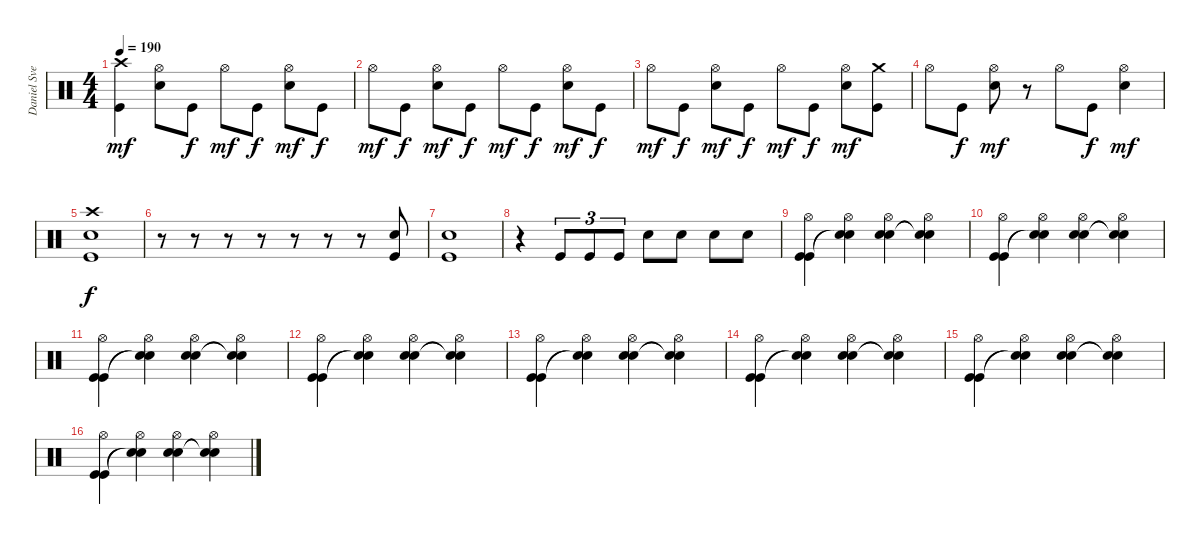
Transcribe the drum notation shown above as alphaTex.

\track ("Daniel Svensson" "Daniel Sve") {instrument percussion}
\staff {score}
\articulation defaults
\ts (4 4)
\tempo 190
\clef neutral
\ks c
("Kick (hit)" "Crash high (hit)").4{dy mf} ("Electric Snare (hit)" "Hi-Hat (open)").8 "Kick (hit)".8{dy f} "Hi-Hat (open)".8{dy mf} "Kick (hit)".8{dy f} ("Electric Snare (hit)" "Hi-Hat (open)").8{dy mf} "Kick (hit)".8{dy f} |
"Hi-Hat (open)".8{dy mf} "Kick (hit)".8{dy f} ("Electric Snare (hit)" "Hi-Hat (open)").8{dy mf} "Kick (hit)".8{dy f} "Hi-Hat (open)".8{dy mf} "Kick (hit)".8{dy f} ("Electric Snare (hit)" "Hi-Hat (open)").8{dy mf} "Kick (hit)".8{dy f} |
"Hi-Hat (open)".8{dy mf} "Kick (hit)".8{dy f} ("Electric Snare (hit)" "Hi-Hat (open)").8{dy mf} "Kick (hit)".8{dy f} "Hi-Hat (open)".8{dy mf} "Kick (hit)".8{dy f} ("Electric Snare (hit)" "Hi-Hat (open)").8{dy mf} ("Kick (hit)" "Crash medium (hit)").8 |
"Hi-Hat (open)".8 "Kick (hit)".8{dy f} ("Electric Snare (hit)" "Hi-Hat (open)").8{dy mf} r.8 "Hi-Hat (open)".8 "Kick (hit)".8{dy f} ("Electric Snare (hit)" "Hi-Hat (open)").4{dy mf} |
("Crash high (hit)" "Electric Snare (hit)" "Kick (hit)").1{dy f} |
r.8 r.8 r.8 r.8 r.8 r.8 r.8 ("Electric Snare (hit)" "Kick (hit)").8 |
("Electric Snare (hit)" "Kick (hit)").1 |
r.4 "Kick (hit)".8{tu (3 2)} "Kick (hit)".8{tu (3 2)} "Kick (hit)".8{tu (3 2)} "Electric Snare (hit)".8 "Electric Snare (hit)".8 "Electric Snare (hit)".8 "Electric Snare (hit)".8 |
("Hi-Hat (open)" "Kick (hit)" "Kick (hit)").4 ("Hi-Hat (open)" "Snare (hit)"{t} "Snare (hit)"{t}).4 ("Hi-Hat (open)" "Electric Snare (hit)" "Electric Snare (hit)").4 ("Hi-Hat (open)" "Snare (hit)"{t} "Snare (hit)"{t}).4 |
("Hi-Hat (open)" "Kick (hit)" "Kick (hit)").4 ("Hi-Hat (open)" "Snare (hit)"{t} "Snare (hit)"{t}).4 ("Hi-Hat (open)" "Electric Snare (hit)" "Electric Snare (hit)").4 ("Hi-Hat (open)" "Snare (hit)"{t} "Snare (hit)"{t}).4 |
("Hi-Hat (open)" "Kick (hit)" "Kick (hit)").4 ("Hi-Hat (open)" "Snare (hit)"{t} "Snare (hit)"{t}).4 ("Hi-Hat (open)" "Electric Snare (hit)" "Electric Snare (hit)").4 ("Hi-Hat (open)" "Snare (hit)"{t} "Snare (hit)"{t}).4 |
("Hi-Hat (open)" "Kick (hit)" "Kick (hit)").4 ("Hi-Hat (open)" "Snare (hit)"{t} "Snare (hit)"{t}).4 ("Hi-Hat (open)" "Electric Snare (hit)" "Electric Snare (hit)").4 ("Hi-Hat (open)" "Snare (hit)"{t} "Snare (hit)"{t}).4 |
("Hi-Hat (open)" "Kick (hit)" "Kick (hit)").4 ("Hi-Hat (open)" "Snare (hit)"{t} "Snare (hit)"{t}).4 ("Hi-Hat (open)" "Electric Snare (hit)" "Electric Snare (hit)").4 ("Hi-Hat (open)" "Snare (hit)"{t} "Snare (hit)"{t}).4 |
("Hi-Hat (open)" "Kick (hit)" "Kick (hit)").4 ("Hi-Hat (open)" "Snare (hit)"{t} "Snare (hit)"{t}).4 ("Hi-Hat (open)" "Electric Snare (hit)" "Electric Snare (hit)").4 ("Hi-Hat (open)" "Snare (hit)"{t} "Snare (hit)"{t}).4 |
("Hi-Hat (open)" "Kick (hit)" "Kick (hit)").4 ("Hi-Hat (open)" "Snare (hit)"{t} "Snare (hit)"{t}).4 ("Hi-Hat (open)" "Electric Snare (hit)" "Electric Snare (hit)").4 ("Hi-Hat (open)" "Snare (hit)"{t} "Snare (hit)"{t}).4 |
("Hi-Hat (open)" "Kick (hit)" "Kick (hit)").4 ("Hi-Hat (open)" "Snare (hit)"{t} "Snare (hit)"{t}).4 ("Hi-Hat (open)" "Electric Snare (hit)" "Electric Snare (hit)").4 ("Hi-Hat (open)" "Snare (hit)"{t} "Snare (hit)"{t}).4
